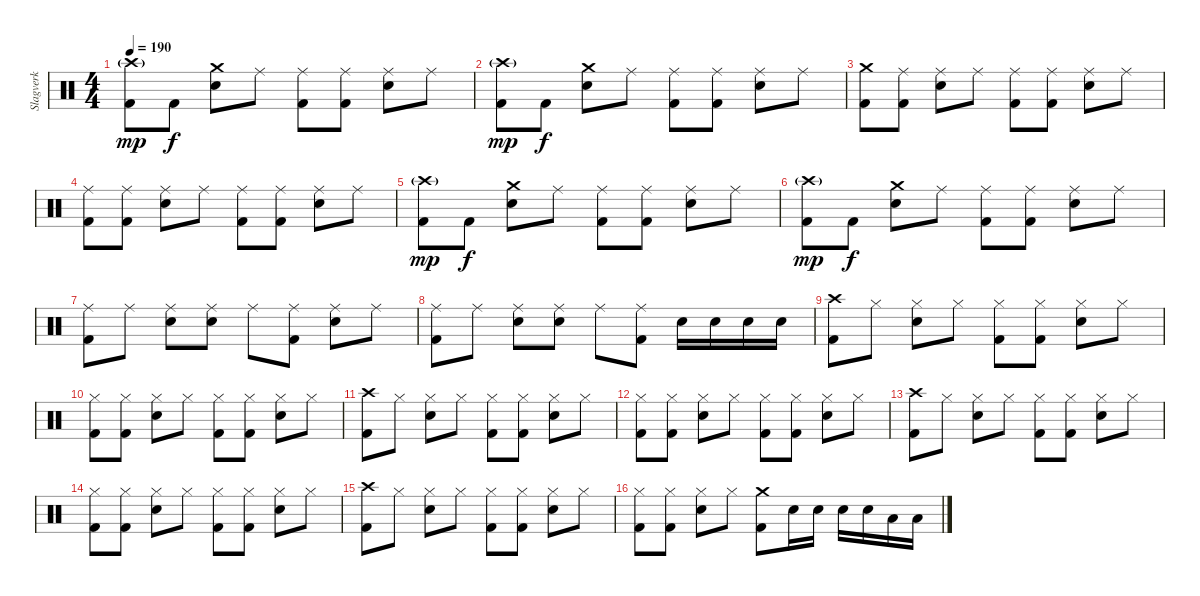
\track ("Slagverk" "Slagverk") {instrument percussion}
\staff {score}
\articulation defaults
\ts (4 4)
\tempo 190
\clef neutral
\ks c
("Kick (hit) 2" "Crash high (hit)"{g}).8{dy mp} "Kick (hit) 2".8{dy f} ("Electric Snare (hit)" "Crash medium (hit)").8 "Ride (middle)".8 ("Kick (hit) 2" "Ride (middle)").8 ("Kick (hit) 2" "Ride (middle)").8 ("Electric Snare (hit)" "Ride (middle)").8 "Ride (middle)".8 |
("Kick (hit) 2" "Crash high (hit)"{g}).8{dy mp} "Kick (hit) 2".8{dy f} ("Electric Snare (hit)" "Crash medium (hit)").8 "Ride (middle)".8 ("Kick (hit) 2" "Ride (middle)").8 ("Kick (hit) 2" "Ride (middle)").8 ("Electric Snare (hit)" "Ride (middle)").8 "Ride (middle)".8 |
("Kick (hit) 2" "Crash medium (hit)").8 ("Kick (hit) 2" "Ride (middle)").8 ("Electric Snare (hit)" "Ride (middle)").8 "Ride (middle)".8 ("Kick (hit) 2" "Ride (middle)").8 ("Kick (hit) 2" "Ride (middle)").8 ("Electric Snare (hit)" "Ride (middle)").8 "Ride (middle)".8 |
("Kick (hit) 2" "Ride (middle)").8 ("Kick (hit) 2" "Ride (middle)").8 ("Electric Snare (hit)" "Ride (middle)").8 "Ride (middle)".8 ("Kick (hit) 2" "Ride (middle)").8 ("Kick (hit) 2" "Ride (middle)").8 ("Electric Snare (hit)" "Ride (middle)").8 "Ride (middle)".8 |
("Kick (hit) 2" "Crash high (hit)"{g}).8{dy mp} "Kick (hit) 2".8{dy f} ("Electric Snare (hit)" "Crash medium (hit)").8 "Ride (middle)".8 ("Kick (hit) 2" "Ride (middle)").8 ("Kick (hit) 2" "Ride (middle)").8 ("Electric Snare (hit)" "Ride (middle)").8 "Ride (middle)".8 |
("Kick (hit) 2" "Crash high (hit)"{g}).8{dy mp} "Kick (hit) 2".8{dy f} ("Electric Snare (hit)" "Crash medium (hit)").8 "Ride (middle)".8 ("Kick (hit) 2" "Ride (middle)").8 ("Kick (hit) 2" "Ride (middle)").8 ("Electric Snare (hit)" "Ride (middle)").8 "Ride (middle)".8 |
("Kick (hit) 2" "Ride (middle)").8 "Ride (middle)".8 ("Electric Snare (hit)" "Ride (middle)").8 ("Electric Snare (hit)" "Ride (middle)").8 "Ride (middle)".8 ("Kick (hit) 2" "Ride (middle)").8 ("Electric Snare (hit)" "Ride (middle)").8 "Ride (middle)".8 |
("Kick (hit) 2" "Ride (middle)").8 "Ride (middle)".8 ("Electric Snare (hit)" "Ride (middle)").8 ("Electric Snare (hit)" "Ride (middle)").8 "Ride (middle)".8 ("Kick (hit) 2" "Ride (middle)").8 "Electric Snare (hit)".16 "Electric Snare (hit)".16 "Electric Snare (hit)".16 "Electric Snare (hit)".16 |
("Kick (hit) 2" "Crash high (hit)").8 "Hi-Hat (closed)".8 ("Electric Snare (hit)" "Hi-Hat (closed)").8 "Hi-Hat (closed)".8 ("Kick (hit) 2" "Hi-Hat (closed)").8 ("Kick (hit) 2" "Hi-Hat (closed)").8 ("Electric Snare (hit)" "Hi-Hat (closed)").8 "Hi-Hat (closed)".8 |
("Kick (hit) 2" "Hi-Hat (closed)").8 ("Kick (hit) 2" "Hi-Hat (closed)").8 ("Electric Snare (hit)" "Hi-Hat (closed)").8 "Hi-Hat (closed)".8 ("Kick (hit) 2" "Hi-Hat (closed)").8 ("Kick (hit) 2" "Hi-Hat (closed)").8 ("Electric Snare (hit)" "Hi-Hat (closed)").8 "Hi-Hat (closed)".8 |
("Kick (hit) 2" "Crash high (hit)").8 "Hi-Hat (closed)".8 ("Electric Snare (hit)" "Hi-Hat (closed)").8 "Hi-Hat (closed)".8 ("Kick (hit) 2" "Hi-Hat (closed)").8 ("Kick (hit) 2" "Hi-Hat (closed)").8 ("Electric Snare (hit)" "Hi-Hat (closed)").8 "Hi-Hat (closed)".8 |
("Kick (hit) 2" "Hi-Hat (closed)").8 ("Kick (hit) 2" "Hi-Hat (closed)").8 ("Electric Snare (hit)" "Hi-Hat (closed)").8 "Hi-Hat (closed)".8 ("Kick (hit) 2" "Hi-Hat (closed)").8 ("Kick (hit) 2" "Hi-Hat (closed)").8 ("Electric Snare (hit)" "Hi-Hat (closed)").8 "Hi-Hat (closed)".8 |
("Kick (hit) 2" "Crash high (hit)").8 "Hi-Hat (closed)".8 ("Electric Snare (hit)" "Hi-Hat (closed)").8 "Hi-Hat (closed)".8 ("Kick (hit) 2" "Hi-Hat (closed)").8 ("Kick (hit) 2" "Hi-Hat (closed)").8 ("Electric Snare (hit)" "Hi-Hat (closed)").8 "Hi-Hat (closed)".8 |
("Kick (hit) 2" "Hi-Hat (closed)").8 ("Kick (hit) 2" "Hi-Hat (closed)").8 ("Electric Snare (hit)" "Hi-Hat (closed)").8 "Hi-Hat (closed)".8 ("Kick (hit) 2" "Hi-Hat (closed)").8 ("Kick (hit) 2" "Hi-Hat (closed)").8 ("Electric Snare (hit)" "Hi-Hat (closed)").8 "Hi-Hat (closed)".8 |
("Kick (hit) 2" "Crash high (hit)").8 "Hi-Hat (closed)".8 ("Electric Snare (hit)" "Hi-Hat (closed)").8 "Hi-Hat (closed)".8 ("Kick (hit) 2" "Hi-Hat (closed)").8 ("Kick (hit) 2" "Hi-Hat (closed)").8 ("Electric Snare (hit)" "Hi-Hat (closed)").8 "Hi-Hat (closed)".8 |
("Kick (hit) 2" "Hi-Hat (closed)").8 ("Kick (hit) 2" "Hi-Hat (closed)").8 ("Electric Snare (hit)" "Hi-Hat (closed)").8 "Hi-Hat (closed)".8 ("Kick (hit) 2" "Crash medium (hit)").8 "Electric Snare (hit)".16 "Electric Snare (hit)".16 "Electric Snare (hit)".16 "Electric Snare (hit)".16 "Low Tom (hit)".16 "Low Tom (hit)".16
